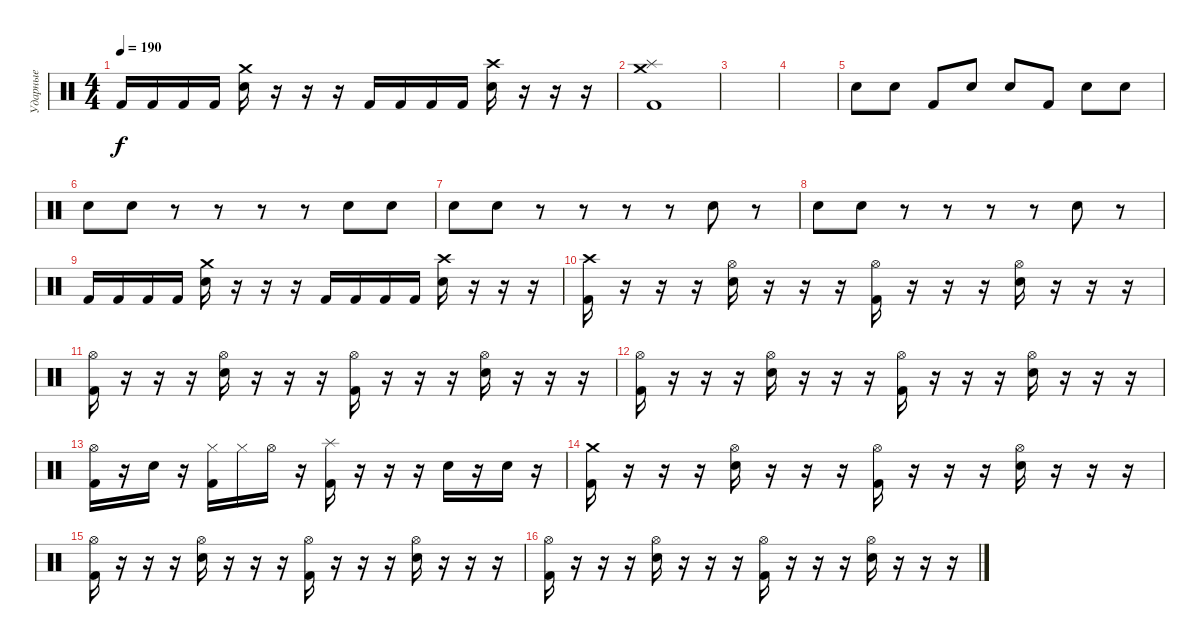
\track ("Ударные" "Ударные") {instrument percussion}
\staff {score}
\articulation defaults
\ts (4 4)
\tempo 190
\clef neutral
\ks c "Kick (hit) 2".16{dy f} "Kick (hit) 2".16 "Kick (hit) 2".16 "Kick (hit) 2".16
("Electric Snare (hit)" "Crash medium (hit)").16 r.16 r.16 r.16 "Kick (hit) 2".16 "Kick (hit) 2".16 "Kick (hit) 2".16 "Kick (hit) 2".16 ("Electric Snare (hit)" "Crash high (hit)").16 r.16 r.16 r.16 |
("Kick (hit) 2" "Splash (hit)" "Crash medium (hit)").1 |
|
|
"Electric Snare (hit)".8 "Electric Snare (hit)".8 "Kick (hit) 2".8 "Electric Snare (hit)".8 "Electric Snare (hit)".8 "Kick (hit) 2".8 "Electric Snare (hit)".8 "Electric Snare (hit)".8 |
"Electric Snare (hit)".8 "Electric Snare (hit)".8 r.8 r.8 r.8 r.8 "Electric Snare (hit)".8 "Electric Snare (hit)".8 |
"Electric Snare (hit)".8 "Electric Snare (hit)".8 r.8 r.8 r.8 r.8 "Electric Snare (hit)".8 r.8 |
"Electric Snare (hit)".8 "Electric Snare (hit)".8 r.8 r.8 r.8 r.8 "Electric Snare (hit)".8 r.8 |
"Kick (hit) 2".16 "Kick (hit) 2".16 "Kick (hit) 2".16 "Kick (hit) 2".16 ("Electric Snare (hit)" "Crash medium (hit)").16 r.16 r.16 r.16 "Kick (hit) 2".16 "Kick (hit) 2".16 "Kick (hit) 2".16 "Kick (hit) 2".16 ("Electric Snare (hit)" "Crash high (hit)").16 r.16 r.16 r.16 |
("Kick (hit) 2" "Crash high (hit)").16 r.16 r.16 r.16 ("Electric Snare (hit)" "Hi-Hat (open)").16 r.16 r.16 r.16 ("Kick (hit) 2" "Hi-Hat (open)").16 r.16 r.16 r.16 ("Electric Snare (hit)" "Hi-Hat (open)").16 r.16 r.16 r.16 |
("Kick (hit) 2" "Hi-Hat (open)").16 r.16 r.16 r.16 ("Electric Snare (hit)" "Hi-Hat (open)").16 r.16 r.16 r.16 ("Kick (hit) 2" "Hi-Hat (open)").16 r.16 r.16 r.16 ("Electric Snare (hit)" "Hi-Hat (open)").16 r.16 r.16 r.16 |
("Kick (hit) 2" "Hi-Hat (open)").16 r.16 r.16 r.16 ("Electric Snare (hit)" "Hi-Hat (open)").16 r.16 r.16 r.16 ("Kick (hit) 2" "Hi-Hat (open)").16 r.16 r.16 r.16 ("Electric Snare (hit)" "Hi-Hat (open)").16 r.16 r.16 r.16 |
("Kick (hit) 2" "Hi-Hat (open)").16 r.16 "Electric Snare (hit)".16 r.16 ("Kick (hit) 2" "Hi-Hat (closed)").16 "Hi-Hat (closed)".16 "Hi-Hat (open)".16 r.16 ("Kick (hit) 2" "Splash (hit)").16 r.16 r.16 r.16 "Electric Snare (hit)".16 r.16 "Electric Snare (hit)".16 r.16 |
("Kick (hit) 2" "Crash medium (hit)").16 r.16 r.16 r.16 ("Electric Snare (hit)" "Hi-Hat (open)").16 r.16 r.16 r.16 ("Kick (hit) 2" "Hi-Hat (open)").16 r.16 r.16 r.16 ("Electric Snare (hit)" "Hi-Hat (open)").16 r.16 r.16 r.16 |
("Kick (hit) 2" "Hi-Hat (open)").16 r.16 r.16 r.16 ("Electric Snare (hit)" "Hi-Hat (open)").16 r.16 r.16 r.16 ("Kick (hit) 2" "Hi-Hat (open)").16 r.16 r.16 r.16 ("Electric Snare (hit)" "Hi-Hat (open)").16 r.16 r.16 r.16 |
("Kick (hit) 2" "Hi-Hat (open)").16 r.16 r.16 r.16 ("Electric Snare (hit)" "Hi-Hat (open)").16 r.16 r.16 r.16 ("Kick (hit) 2" "Hi-Hat (open)").16 r.16 r.16 r.16 ("Electric Snare (hit)" "Hi-Hat (open)").16 r.16 r.16 r.16
